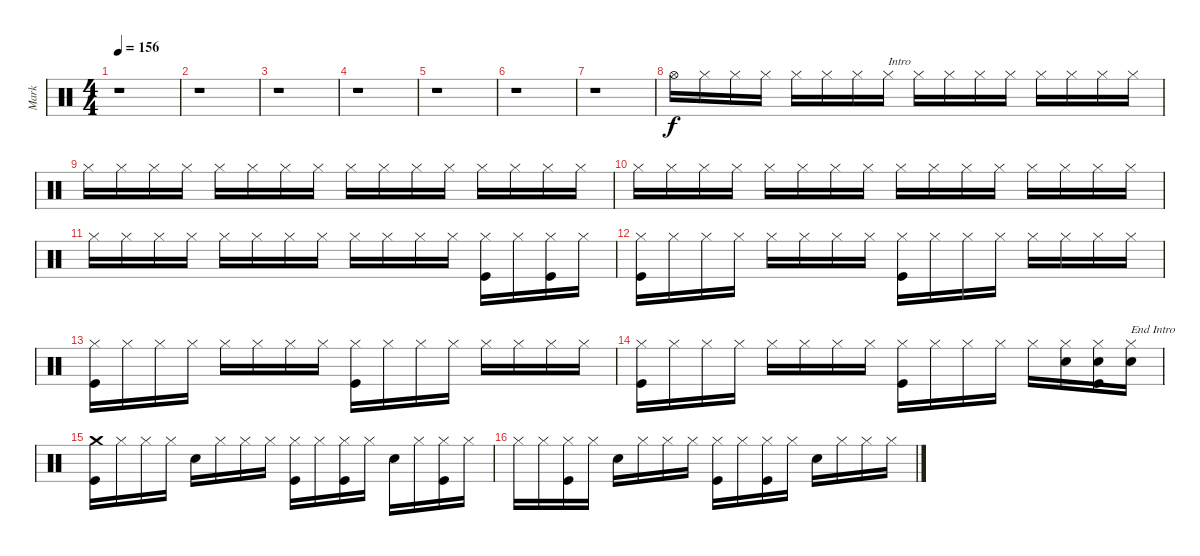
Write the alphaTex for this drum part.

\track ("Mark" "Mark") {instrument percussion}
\staff {score}
\articulation defaults
\ts (4 4)
\tempo 156
\clef neutral
\ks c
r.1{dy f} |
r.1 |
r.1 |
r.1 |
r.1 |
r.1 |
r.1 |
"Hi-Hat (open)".16 "Hi-Hat (closed)".16 "Hi-Hat (closed)".16 "Hi-Hat (closed)".16 "Hi-Hat (closed)".16 "Hi-Hat (closed)".16 "Hi-Hat (closed)".16 "Hi-Hat (closed)".16{txt "Intro"} "Hi-Hat (closed)".16 "Hi-Hat (closed)".16 "Hi-Hat (closed)".16 "Hi-Hat (closed)".16 "Hi-Hat (closed)".16 "Hi-Hat (closed)".16 "Hi-Hat (closed)".16 "Hi-Hat (closed)".16 |
"Hi-Hat (closed)".16 "Hi-Hat (closed)".16 "Hi-Hat (closed)".16 "Hi-Hat (closed)".16 "Hi-Hat (closed)".16 "Hi-Hat (closed)".16 "Hi-Hat (closed)".16 "Hi-Hat (closed)".16 "Hi-Hat (closed)".16 "Hi-Hat (closed)".16 "Hi-Hat (closed)".16 "Hi-Hat (closed)".16 "Hi-Hat (closed)".16 "Hi-Hat (closed)".16 "Hi-Hat (closed)".16 "Hi-Hat (closed)".16 |
"Hi-Hat (closed)".16 "Hi-Hat (closed)".16 "Hi-Hat (closed)".16 "Hi-Hat (closed)".16 "Hi-Hat (closed)".16 "Hi-Hat (closed)".16 "Hi-Hat (closed)".16 "Hi-Hat (closed)".16 "Hi-Hat (closed)".16 "Hi-Hat (closed)".16 "Hi-Hat (closed)".16 "Hi-Hat (closed)".16 "Hi-Hat (closed)".16 "Hi-Hat (closed)".16 "Hi-Hat (closed)".16 "Hi-Hat (closed)".16 |
"Hi-Hat (closed)".16 "Hi-Hat (closed)".16 "Hi-Hat (closed)".16 "Hi-Hat (closed)".16 "Hi-Hat (closed)".16 "Hi-Hat (closed)".16 "Hi-Hat (closed)".16 "Hi-Hat (closed)".16 "Hi-Hat (closed)".16 "Hi-Hat (closed)".16 "Hi-Hat (closed)".16 "Hi-Hat (closed)".16 ("Kick (hit)" "Hi-Hat (closed)").16 "Hi-Hat (closed)".16 ("Kick (hit)" "Hi-Hat (closed)").16 "Hi-Hat (closed)".16 |
("Kick (hit)" "Hi-Hat (closed)").16 "Hi-Hat (closed)".16 "Hi-Hat (closed)".16 "Hi-Hat (closed)".16 "Hi-Hat (closed)".16 "Hi-Hat (closed)".16 "Hi-Hat (closed)".16 "Hi-Hat (closed)".16 ("Kick (hit)" "Hi-Hat (closed)").16 "Hi-Hat (closed)".16 "Hi-Hat (closed)".16 "Hi-Hat (closed)".16 "Hi-Hat (closed)".16 "Hi-Hat (closed)".16 "Hi-Hat (closed)".16 "Hi-Hat (closed)".16 |
("Kick (hit)" "Hi-Hat (closed)").16 "Hi-Hat (closed)".16 "Hi-Hat (closed)".16 "Hi-Hat (closed)".16 "Hi-Hat (closed)".16 "Hi-Hat (closed)".16 "Hi-Hat (closed)".16 "Hi-Hat (closed)".16 ("Kick (hit)" "Hi-Hat (closed)").16 "Hi-Hat (closed)".16 "Hi-Hat (closed)".16 "Hi-Hat (closed)".16 "Hi-Hat (closed)".16 "Hi-Hat (closed)".16 "Hi-Hat (closed)".16 "Hi-Hat (closed)".16 |
("Kick (hit)" "Hi-Hat (closed)").16 "Hi-Hat (closed)".16 "Hi-Hat (closed)".16 "Hi-Hat (closed)".16 "Hi-Hat (closed)".16 "Hi-Hat (closed)".16 "Hi-Hat (closed)".16 "Hi-Hat (closed)".16 ("Kick (hit)" "Hi-Hat (closed)").16 "Hi-Hat (closed)".16 "Hi-Hat (closed)".16 "Hi-Hat (closed)".16 "Hi-Hat (closed)".16 ("Hi-Hat (closed)" "Snare (hit) 2").16 ("Kick (hit)" "Hi-Hat (closed)" "Snare (hit) 2").16 ("Hi-Hat (closed)" "Snare (hit) 2").16{txt "End Intro"} |
("Kick (hit)" "Crash medium (hit)").16 "Hi-Hat (closed)".16 "Hi-Hat (closed)".16 "Hi-Hat (closed)".16 "Snare (hit) 2".16 "Hi-Hat (closed)".16 "Hi-Hat (closed)".16 "Hi-Hat (closed)".16 ("Kick (hit)" "Hi-Hat (closed)").16 "Hi-Hat (closed)".16 ("Kick (hit)" "Hi-Hat (closed)").16 "Hi-Hat (closed)".16 "Snare (hit) 2".16 "Hi-Hat (closed)".16 ("Kick (hit)" "Hi-Hat (closed)").16 "Hi-Hat (closed)".16 |
"Hi-Hat (closed)".16 "Hi-Hat (closed)".16 ("Kick (hit)" "Hi-Hat (closed)").16 "Hi-Hat (closed)".16 "Snare (hit) 2".16 "Hi-Hat (closed)".16 "Hi-Hat (closed)".16 "Hi-Hat (closed)".16 ("Kick (hit)" "Hi-Hat (closed)").16 "Hi-Hat (closed)".16 ("Kick (hit)" "Hi-Hat (closed)").16 "Hi-Hat (closed)".16 "Snare (hit) 2".16 "Hi-Hat (closed)".16 "Hi-Hat (closed)".16 "Hi-Hat (closed)".16
